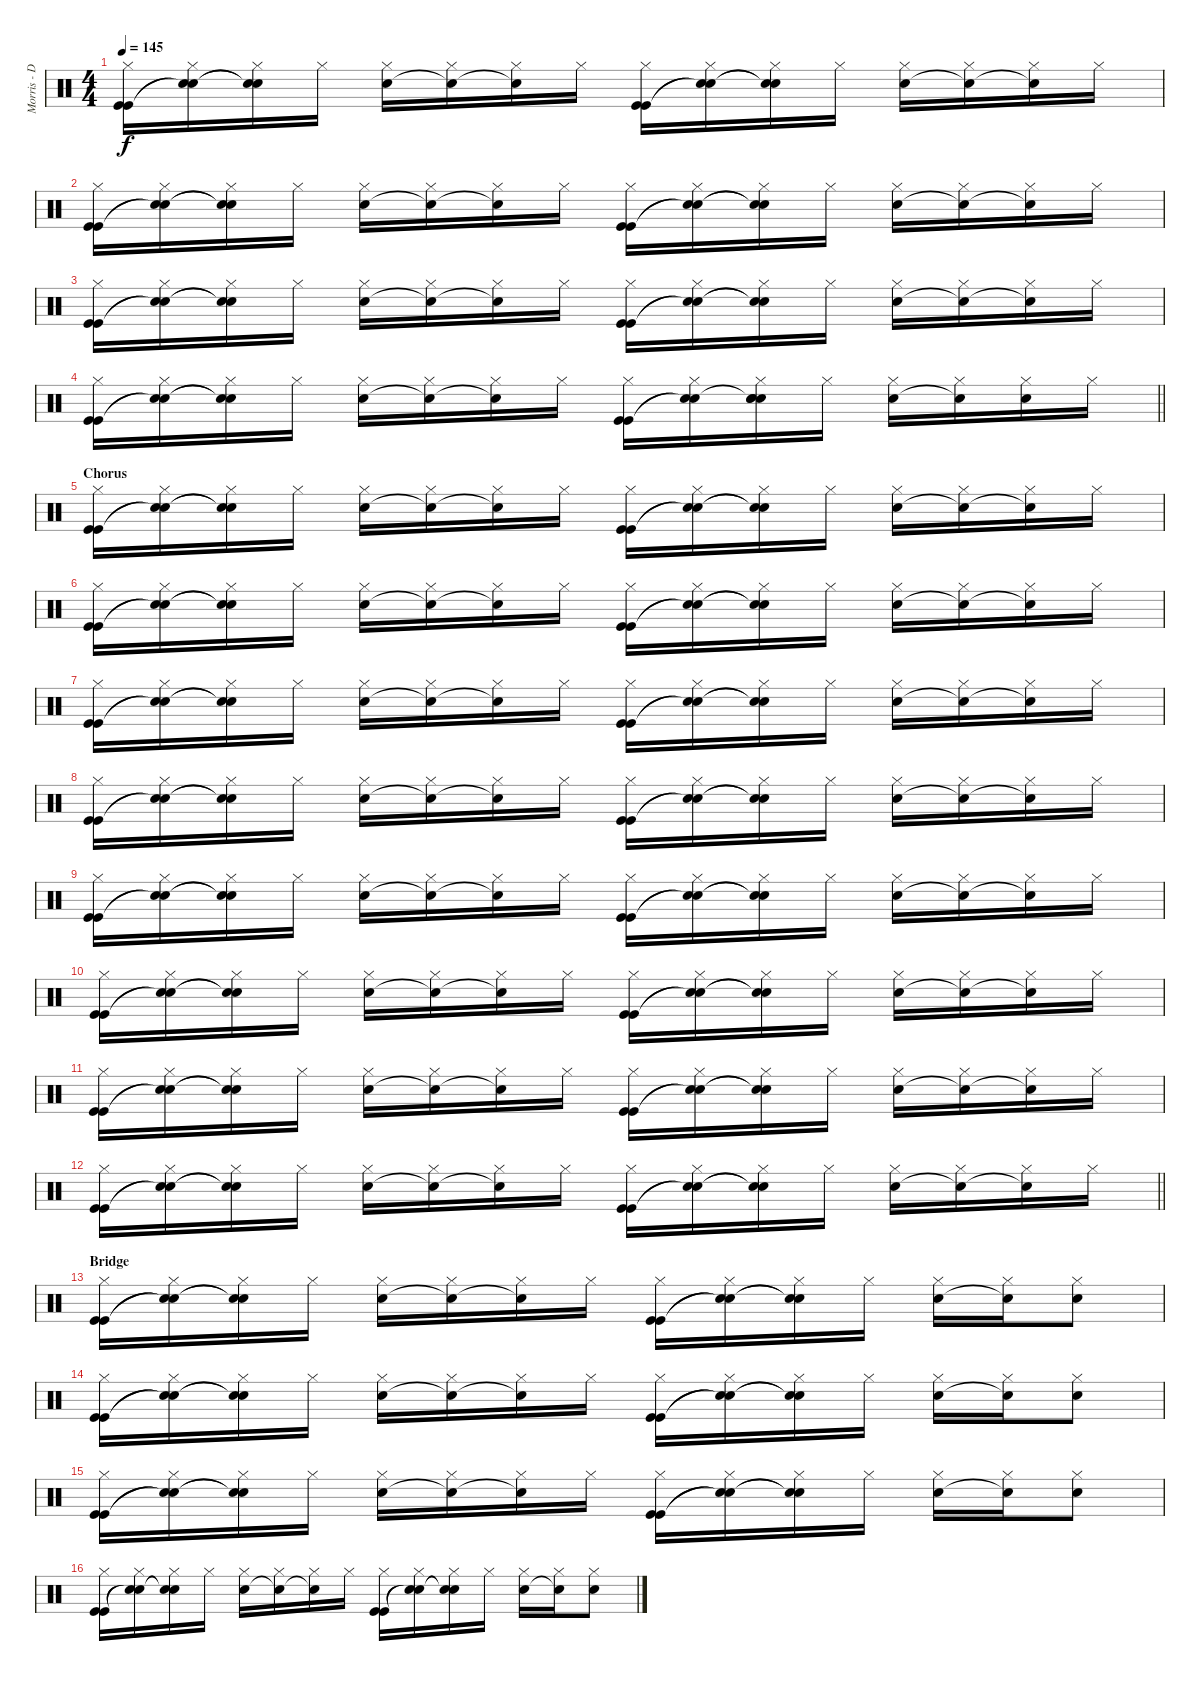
\track ("Morris - Drums" "Morris - D") {instrument percussion}
\staff {score}
\articulation defaults
\ts (4 4)
\tempo 145
\clef neutral
\ks c
("Hi-Hat (closed)" "Kick (hit)" "Kick (hit)").16{dy f} ("Hi-Hat (closed)" "Snare (hit)"{t} "Snare (hit)"{t}).16 ("Hi-Hat (closed)" "Snare (hit)"{t} "Snare (hit)"{t}).16 "Hi-Hat (closed)".16 ("Hi-Hat (closed)" "Snare (hit) 2").16 ("Hi-Hat (closed)" "Snare (hit)"{t}).16 ("Hi-Hat (closed)" "Snare (hit) 2"{t}).16 "Hi-Hat (closed)".16 ("Hi-Hat (closed)" "Kick (hit)" "Kick (hit)").16 ("Hi-Hat (closed)" "Snare (hit)"{t} "Snare (hit)"{t}).16 ("Hi-Hat (closed)" "Snare (hit)"{t} "Snare (hit)"{t}).16 "Hi-Hat (closed)".16 ("Hi-Hat (closed)" "Snare (hit) 2").16 ("Hi-Hat (closed)" "Snare (hit) 2"{t}).16 ("Hi-Hat (closed)" "Snare (hit)"{t}).16 "Hi-Hat (closed)".16 |
("Hi-Hat (closed)" "Kick (hit)" "Kick (hit)").16 ("Hi-Hat (closed)" "Snare (hit)"{t} "Snare (hit)"{t}).16 ("Hi-Hat (closed)" "Snare (hit)"{t} "Snare (hit)"{t}).16 "Hi-Hat (closed)".16 ("Hi-Hat (closed)" "Snare (hit) 2").16 ("Hi-Hat (closed)" "Snare (hit)"{t}).16 ("Hi-Hat (closed)" "Snare (hit) 2"{t}).16 "Hi-Hat (closed)".16 ("Hi-Hat (closed)" "Kick (hit)" "Kick (hit)").16 ("Hi-Hat (closed)" "Snare (hit)"{t} "Snare (hit)"{t}).16 ("Hi-Hat (closed)" "Snare (hit)"{t} "Snare (hit)"{t}).16 "Hi-Hat (closed)".16 ("Hi-Hat (closed)" "Snare (hit) 2").16 ("Hi-Hat (closed)" "Snare (hit) 2"{t}).16 ("Hi-Hat (closed)" "Snare (hit)"{t}).16 "Hi-Hat (closed)".16 |
("Hi-Hat (closed)" "Kick (hit)" "Kick (hit)").16 ("Hi-Hat (closed)" "Snare (hit)"{t} "Snare (hit)"{t}).16 ("Hi-Hat (closed)" "Snare (hit)"{t} "Snare (hit)"{t}).16 "Hi-Hat (closed)".16 ("Hi-Hat (closed)" "Snare (hit) 2").16 ("Hi-Hat (closed)" "Snare (hit)"{t}).16 ("Hi-Hat (closed)" "Snare (hit) 2"{t}).16 "Hi-Hat (closed)".16 ("Hi-Hat (closed)" "Kick (hit)" "Kick (hit)").16 ("Hi-Hat (closed)" "Snare (hit)"{t} "Snare (hit)"{t}).16 ("Hi-Hat (closed)" "Snare (hit)"{t} "Snare (hit)"{t}).16 "Hi-Hat (closed)".16 ("Hi-Hat (closed)" "Snare (hit) 2").16 ("Hi-Hat (closed)" "Snare (hit) 2"{t}).16 ("Hi-Hat (closed)" "Snare (hit)"{t}).16 "Hi-Hat (closed)".16 |
\barLineRight lightlight
("Hi-Hat (closed)" "Kick (hit)" "Kick (hit)").16 ("Hi-Hat (closed)" "Snare (hit)"{t} "Snare (hit)"{t}).16 ("Hi-Hat (closed)" "Snare (hit)"{t} "Snare (hit)"{t}).16 "Hi-Hat (closed)".16 ("Hi-Hat (closed)" "Snare (hit) 2").16 ("Hi-Hat (closed)" "Snare (hit)"{t}).16 ("Hi-Hat (closed)" "Snare (hit) 2"{t}).16 "Hi-Hat (closed)".16 ("Hi-Hat (closed)" "Kick (hit)" "Kick (hit)").16 ("Hi-Hat (closed)" "Snare (hit)"{t} "Snare (hit)"{t}).16 ("Hi-Hat (closed)" "Snare (hit) 2" "Snare (hit)"{t} "Snare (hit)").16 "Hi-Hat (closed)".16 ("Hi-Hat (closed)" "Snare (hit) 2").16 ("Hi-Hat (closed)" "Snare (hit) 2"{t}).16 ("Hi-Hat (closed)" "Snare (hit) 2").16 "Hi-Hat (closed)".16 |
\section ("" "Chorus")
("Hi-Hat (closed)" "Kick (hit)" "Kick (hit)").16 ("Hi-Hat (closed)" "Snare (hit)"{t} "Snare (hit)"{t}).16 ("Hi-Hat (closed)" "Snare (hit)"{t} "Snare (hit)"{t}).16 "Hi-Hat (closed)".16 ("Hi-Hat (closed)" "Snare (hit) 2").16 ("Hi-Hat (closed)" "Snare (hit)"{t}).16 ("Hi-Hat (closed)" "Snare (hit) 2"{t}).16 "Hi-Hat (closed)".16 ("Hi-Hat (closed)" "Kick (hit)" "Kick (hit)").16 ("Hi-Hat (closed)" "Snare (hit)"{t} "Snare (hit)"{t}).16 ("Hi-Hat (closed)" "Snare (hit)"{t} "Snare (hit)"{t}).16 "Hi-Hat (closed)".16 ("Hi-Hat (closed)" "Snare (hit) 2").16 ("Hi-Hat (closed)" "Snare (hit) 2"{t}).16 ("Hi-Hat (closed)" "Snare (hit)"{t}).16 "Hi-Hat (closed)".16 |
("Hi-Hat (closed)" "Kick (hit)" "Kick (hit)").16 ("Hi-Hat (closed)" "Snare (hit)"{t} "Snare (hit)"{t}).16 ("Hi-Hat (closed)" "Snare (hit)"{t} "Snare (hit)"{t}).16 "Hi-Hat (closed)".16 ("Hi-Hat (closed)" "Snare (hit) 2").16 ("Hi-Hat (closed)" "Snare (hit)"{t}).16 ("Hi-Hat (closed)" "Snare (hit) 2"{t}).16 "Hi-Hat (closed)".16 ("Hi-Hat (closed)" "Kick (hit)" "Kick (hit)").16 ("Hi-Hat (closed)" "Snare (hit)"{t} "Snare (hit)"{t}).16 ("Hi-Hat (closed)" "Snare (hit)"{t} "Snare (hit)"{t}).16 "Hi-Hat (closed)".16 ("Hi-Hat (closed)" "Snare (hit) 2").16 ("Hi-Hat (closed)" "Snare (hit) 2"{t}).16 ("Hi-Hat (closed)" "Snare (hit)"{t}).16 "Hi-Hat (closed)".16 |
("Hi-Hat (closed)" "Kick (hit)" "Kick (hit)").16 ("Hi-Hat (closed)" "Snare (hit)"{t} "Snare (hit)"{t}).16 ("Hi-Hat (closed)" "Snare (hit)"{t} "Snare (hit)"{t}).16 "Hi-Hat (closed)".16 ("Hi-Hat (closed)" "Snare (hit) 2").16 ("Hi-Hat (closed)" "Snare (hit)"{t}).16 ("Hi-Hat (closed)" "Snare (hit) 2"{t}).16 "Hi-Hat (closed)".16 ("Hi-Hat (closed)" "Kick (hit)" "Kick (hit)").16 ("Hi-Hat (closed)" "Snare (hit)"{t} "Snare (hit)"{t}).16 ("Hi-Hat (closed)" "Snare (hit)"{t} "Snare (hit)"{t}).16 "Hi-Hat (closed)".16 ("Hi-Hat (closed)" "Snare (hit) 2").16 ("Hi-Hat (closed)" "Snare (hit) 2"{t}).16 ("Hi-Hat (closed)" "Snare (hit)"{t}).16 "Hi-Hat (closed)".16 |
("Hi-Hat (closed)" "Kick (hit)" "Kick (hit)").16 ("Hi-Hat (closed)" "Snare (hit)"{t} "Snare (hit)"{t}).16 ("Hi-Hat (closed)" "Snare (hit)"{t} "Snare (hit)"{t}).16 "Hi-Hat (closed)".16 ("Hi-Hat (closed)" "Snare (hit) 2").16 ("Hi-Hat (closed)" "Snare (hit)"{t}).16 ("Hi-Hat (closed)" "Snare (hit) 2"{t}).16 "Hi-Hat (closed)".16 ("Hi-Hat (closed)" "Kick (hit)" "Kick (hit)").16 ("Hi-Hat (closed)" "Snare (hit)"{t} "Snare (hit)"{t}).16 ("Hi-Hat (closed)" "Snare (hit)"{t} "Snare (hit)"{t}).16 "Hi-Hat (closed)".16 ("Hi-Hat (closed)" "Snare (hit) 2").16 ("Hi-Hat (closed)" "Snare (hit) 2"{t}).16 ("Hi-Hat (closed)" "Snare (hit)"{t}).16 "Hi-Hat (closed)".16 |
("Hi-Hat (closed)" "Kick (hit)" "Kick (hit)").16 ("Hi-Hat (closed)" "Snare (hit)"{t} "Snare (hit)"{t}).16 ("Hi-Hat (closed)" "Snare (hit)"{t} "Snare (hit)"{t}).16 "Hi-Hat (closed)".16 ("Hi-Hat (closed)" "Snare (hit) 2").16 ("Hi-Hat (closed)" "Snare (hit)"{t}).16 ("Hi-Hat (closed)" "Snare (hit) 2"{t}).16 "Hi-Hat (closed)".16 ("Hi-Hat (closed)" "Kick (hit)" "Kick (hit)").16 ("Hi-Hat (closed)" "Snare (hit)"{t} "Snare (hit)"{t}).16 ("Hi-Hat (closed)" "Snare (hit)"{t} "Snare (hit)"{t}).16 "Hi-Hat (closed)".16 ("Hi-Hat (closed)" "Snare (hit) 2").16 ("Hi-Hat (closed)" "Snare (hit) 2"{t}).16 ("Hi-Hat (closed)" "Snare (hit)"{t}).16 "Hi-Hat (closed)".16 |
("Hi-Hat (closed)" "Kick (hit)" "Kick (hit)").16 ("Hi-Hat (closed)" "Snare (hit)"{t} "Snare (hit)"{t}).16 ("Hi-Hat (closed)" "Snare (hit)"{t} "Snare (hit)"{t}).16 "Hi-Hat (closed)".16 ("Hi-Hat (closed)" "Snare (hit) 2").16 ("Hi-Hat (closed)" "Snare (hit)"{t}).16 ("Hi-Hat (closed)" "Snare (hit) 2"{t}).16 "Hi-Hat (closed)".16 ("Hi-Hat (closed)" "Kick (hit)" "Kick (hit)").16 ("Hi-Hat (closed)" "Snare (hit)"{t} "Snare (hit)"{t}).16 ("Hi-Hat (closed)" "Snare (hit)"{t} "Snare (hit)"{t}).16 "Hi-Hat (closed)".16 ("Hi-Hat (closed)" "Snare (hit) 2").16 ("Hi-Hat (closed)" "Snare (hit) 2"{t}).16 ("Hi-Hat (closed)" "Snare (hit)"{t}).16 "Hi-Hat (closed)".16 |
("Hi-Hat (closed)" "Kick (hit)" "Kick (hit)").16 ("Hi-Hat (closed)" "Snare (hit)"{t} "Snare (hit)"{t}).16 ("Hi-Hat (closed)" "Snare (hit)"{t} "Snare (hit)"{t}).16 "Hi-Hat (closed)".16 ("Hi-Hat (closed)" "Snare (hit) 2").16 ("Hi-Hat (closed)" "Snare (hit)"{t}).16 ("Hi-Hat (closed)" "Snare (hit) 2"{t}).16 "Hi-Hat (closed)".16 ("Hi-Hat (closed)" "Kick (hit)" "Kick (hit)").16 ("Hi-Hat (closed)" "Snare (hit)"{t} "Snare (hit)"{t}).16 ("Hi-Hat (closed)" "Snare (hit)"{t} "Snare (hit)"{t}).16 "Hi-Hat (closed)".16 ("Hi-Hat (closed)" "Snare (hit) 2").16 ("Hi-Hat (closed)" "Snare (hit) 2"{t}).16 ("Hi-Hat (closed)" "Snare (hit)"{t}).16 "Hi-Hat (closed)".16 |
\barLineRight lightlight
("Hi-Hat (closed)" "Kick (hit)" "Kick (hit)").16 ("Hi-Hat (closed)" "Snare (hit)"{t} "Snare (hit)"{t}).16 ("Hi-Hat (closed)" "Snare (hit)"{t} "Snare (hit)"{t}).16 "Hi-Hat (closed)".16 ("Hi-Hat (closed)" "Snare (hit) 2").16 ("Hi-Hat (closed)" "Snare (hit)"{t}).16 ("Hi-Hat (closed)" "Snare (hit) 2"{t}).16 "Hi-Hat (closed)".16 ("Hi-Hat (closed)" "Kick (hit)" "Kick (hit)").16 ("Hi-Hat (closed)" "Snare (hit)"{t} "Snare (hit)"{t}).16 ("Hi-Hat (closed)" "Snare (hit)"{t} "Snare (hit)"{t}).16 "Hi-Hat (closed)".16 ("Hi-Hat (closed)" "Snare (hit) 2").16 ("Hi-Hat (closed)" "Snare (hit) 2"{t}).16 ("Hi-Hat (closed)" "Snare (hit)"{t}).16 "Hi-Hat (closed)".16 |
\section ("" "Bridge")
("Hi-Hat (closed)" "Kick (hit)" "Kick (hit)").16 ("Hi-Hat (closed)" "Snare (hit)"{t} "Snare (hit)"{t}).16 ("Hi-Hat (closed)" "Snare (hit)"{t} "Snare (hit)"{t}).16 "Hi-Hat (closed)".16 ("Hi-Hat (closed)" "Snare (hit) 2").16 ("Hi-Hat (closed)" "Snare (hit)"{t}).16 ("Hi-Hat (closed)" "Snare (hit)"{t}).16 "Hi-Hat (closed)".16 ("Hi-Hat (closed)" "Kick (hit)" "Kick (hit)").16 ("Hi-Hat (closed)" "Snare (hit)"{t} "Snare (hit)"{t}).16 ("Hi-Hat (closed)" "Snare (hit)"{t} "Snare (hit)"{t}).16 "Hi-Hat (closed)".16 ("Hi-Hat (closed)" "Snare (hit) 2").16 ("Hi-Hat (closed)" "Snare (hit) 2"{t}).16 ("Hi-Hat (closed)" "Snare (hit) 2").8 |
("Hi-Hat (closed)" "Kick (hit)" "Kick (hit)").16 ("Hi-Hat (closed)" "Snare (hit)"{t} "Snare (hit)"{t}).16 ("Hi-Hat (closed)" "Snare (hit)"{t} "Snare (hit)"{t}).16 "Hi-Hat (closed)".16 ("Hi-Hat (closed)" "Snare (hit) 2").16 ("Hi-Hat (closed)" "Snare (hit)"{t}).16 ("Hi-Hat (closed)" "Snare (hit)"{t}).16 "Hi-Hat (closed)".16 ("Hi-Hat (closed)" "Kick (hit)" "Kick (hit)").16 ("Hi-Hat (closed)" "Snare (hit)"{t} "Snare (hit)"{t}).16 ("Hi-Hat (closed)" "Snare (hit)"{t} "Snare (hit)"{t}).16 "Hi-Hat (closed)".16 ("Hi-Hat (closed)" "Snare (hit) 2").16 ("Hi-Hat (closed)" "Snare (hit) 2"{t}).16 ("Hi-Hat (closed)" "Snare (hit) 2").8 |
("Hi-Hat (closed)" "Kick (hit)" "Kick (hit)").16 ("Hi-Hat (closed)" "Snare (hit)"{t} "Snare (hit)"{t}).16 ("Hi-Hat (closed)" "Snare (hit)"{t} "Snare (hit)"{t}).16 "Hi-Hat (closed)".16 ("Hi-Hat (closed)" "Snare (hit) 2").16 ("Hi-Hat (closed)" "Snare (hit)"{t}).16 ("Hi-Hat (closed)" "Snare (hit)"{t}).16 "Hi-Hat (closed)".16 ("Hi-Hat (closed)" "Kick (hit)" "Kick (hit)").16 ("Hi-Hat (closed)" "Snare (hit)"{t} "Snare (hit)"{t}).16 ("Hi-Hat (closed)" "Snare (hit)"{t} "Snare (hit)"{t}).16 "Hi-Hat (closed)".16 ("Hi-Hat (closed)" "Snare (hit) 2").16 ("Hi-Hat (closed)" "Snare (hit) 2"{t}).16 ("Hi-Hat (closed)" "Snare (hit) 2").8 |
("Hi-Hat (closed)" "Kick (hit)" "Kick (hit)").16 ("Hi-Hat (closed)" "Snare (hit)"{t} "Snare (hit)"{t}).16 ("Hi-Hat (closed)" "Snare (hit)"{t} "Snare (hit)"{t}).16 "Hi-Hat (closed)".16 ("Hi-Hat (closed)" "Snare (hit) 2").16 ("Hi-Hat (closed)" "Snare (hit)"{t}).16 ("Hi-Hat (closed)" "Snare (hit)"{t}).16 "Hi-Hat (closed)".16 ("Hi-Hat (closed)" "Kick (hit)" "Kick (hit)").16 ("Hi-Hat (closed)" "Snare (hit)"{t} "Snare (hit)"{t}).16 ("Hi-Hat (closed)" "Snare (hit)"{t} "Snare (hit)"{t}).16 "Hi-Hat (closed)".16 ("Hi-Hat (closed)" "Snare (hit) 2").16 ("Hi-Hat (closed)" "Snare (hit) 2"{t}).16 ("Hi-Hat (closed)" "Snare (hit) 2").8
